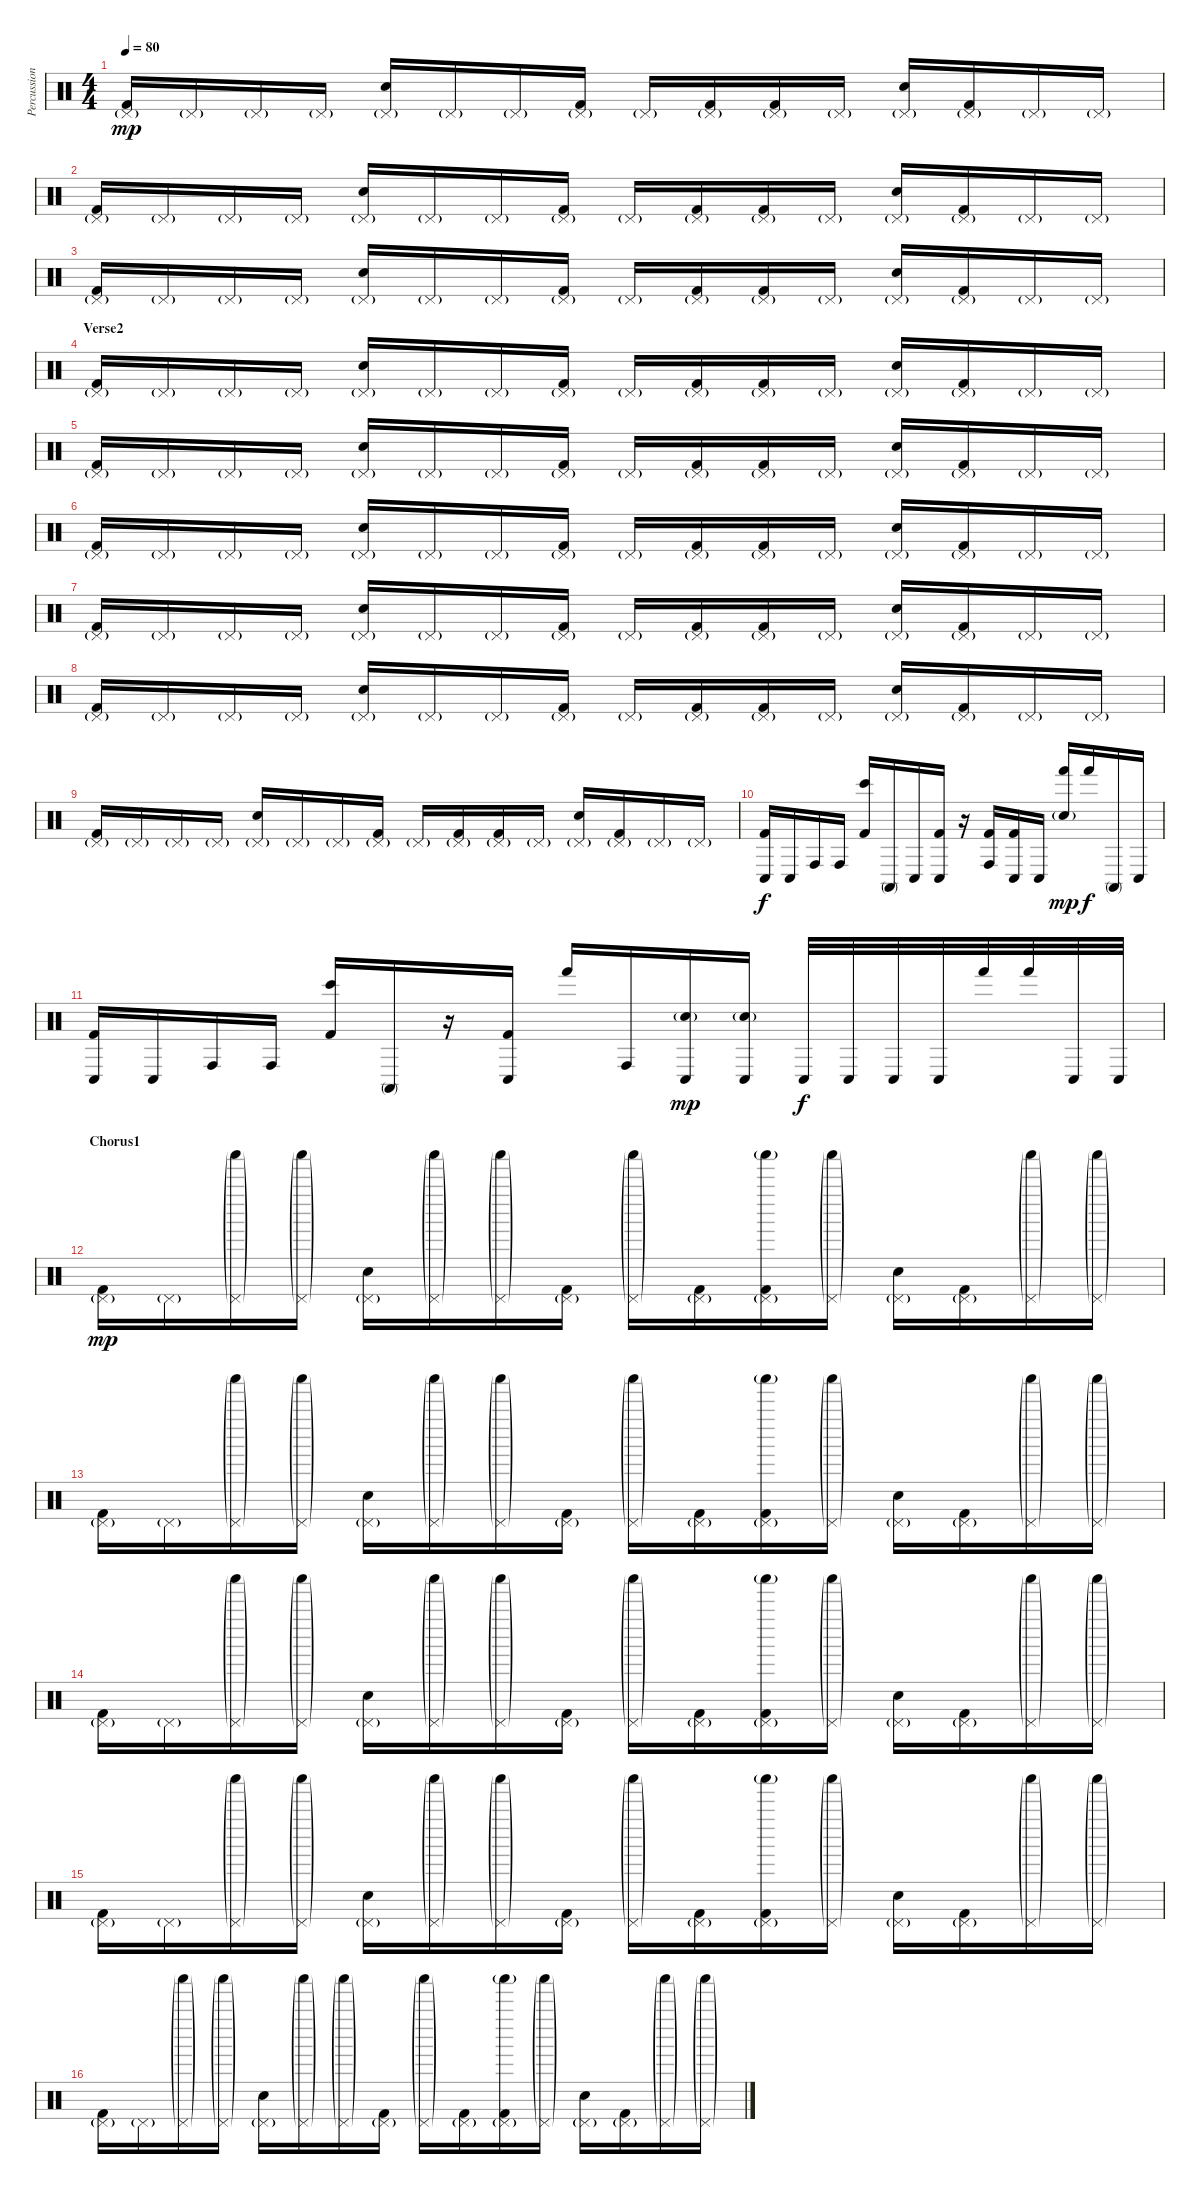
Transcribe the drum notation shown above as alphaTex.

\track ("Percussion" "Percussion") {instrument percussion}
\staff {score}
\articulation defaults
\ts (4 4)
\tempo 80
\clef neutral
\ks c
("Pedal Hi-Hat (hit)"{g} "Kick (hit) 2").16{dy mp} "Pedal Hi-Hat (hit)"{g}.16 "Pedal Hi-Hat (hit)"{g}.16 "Pedal Hi-Hat (hit)"{g}.16 ("Pedal Hi-Hat (hit)"{g} "Electric Snare (hit)").16 "Pedal Hi-Hat (hit)"{g}.16 "Pedal Hi-Hat (hit)"{g}.16 ("Pedal Hi-Hat (hit)"{g} "Kick (hit) 2").16 "Pedal Hi-Hat (hit)"{g}.16 ("Pedal Hi-Hat (hit)"{g} "Kick (hit) 2").16 ("Pedal Hi-Hat (hit)"{g} "Kick (hit) 2").16 "Pedal Hi-Hat (hit)"{g}.16 ("Pedal Hi-Hat (hit)"{g} "Electric Snare (hit)").16 ("Pedal Hi-Hat (hit)"{g} "Kick (hit) 2").16 "Pedal Hi-Hat (hit)"{g}.16 "Pedal Hi-Hat (hit)"{g}.16 |
("Pedal Hi-Hat (hit)"{g} "Kick (hit) 2").16 "Pedal Hi-Hat (hit)"{g}.16 "Pedal Hi-Hat (hit)"{g}.16 "Pedal Hi-Hat (hit)"{g}.16 ("Pedal Hi-Hat (hit)"{g} "Electric Snare (hit)").16 "Pedal Hi-Hat (hit)"{g}.16 "Pedal Hi-Hat (hit)"{g}.16 ("Pedal Hi-Hat (hit)"{g} "Kick (hit) 2").16 "Pedal Hi-Hat (hit)"{g}.16 ("Pedal Hi-Hat (hit)"{g} "Kick (hit) 2").16 ("Pedal Hi-Hat (hit)"{g} "Kick (hit) 2").16 "Pedal Hi-Hat (hit)"{g}.16 ("Pedal Hi-Hat (hit)"{g} "Electric Snare (hit)").16 ("Pedal Hi-Hat (hit)"{g} "Kick (hit) 2").16 "Pedal Hi-Hat (hit)"{g}.16 "Pedal Hi-Hat (hit)"{g}.16 |
("Pedal Hi-Hat (hit)"{g} "Kick (hit) 2").16 "Pedal Hi-Hat (hit)"{g}.16 "Pedal Hi-Hat (hit)"{g}.16 "Pedal Hi-Hat (hit)"{g}.16 ("Pedal Hi-Hat (hit)"{g} "Electric Snare (hit)").16 "Pedal Hi-Hat (hit)"{g}.16 "Pedal Hi-Hat (hit)"{g}.16 ("Pedal Hi-Hat (hit)"{g} "Kick (hit) 2").16 "Pedal Hi-Hat (hit)"{g}.16 ("Pedal Hi-Hat (hit)"{g} "Kick (hit) 2").16 ("Pedal Hi-Hat (hit)"{g} "Kick (hit) 2").16 "Pedal Hi-Hat (hit)"{g}.16 ("Pedal Hi-Hat (hit)"{g} "Electric Snare (hit)").16 ("Pedal Hi-Hat (hit)"{g} "Kick (hit) 2").16 "Pedal Hi-Hat (hit)"{g}.16 "Pedal Hi-Hat (hit)"{g}.16 |
\section ("" "Verse2")
("Pedal Hi-Hat (hit)"{g} "Kick (hit) 2").16 "Pedal Hi-Hat (hit)"{g}.16 "Pedal Hi-Hat (hit)"{g}.16 "Pedal Hi-Hat (hit)"{g}.16 ("Pedal Hi-Hat (hit)"{g} "Electric Snare (hit)").16 "Pedal Hi-Hat (hit)"{g}.16 "Pedal Hi-Hat (hit)"{g}.16 ("Pedal Hi-Hat (hit)"{g} "Kick (hit) 2").16 "Pedal Hi-Hat (hit)"{g}.16 ("Pedal Hi-Hat (hit)"{g} "Kick (hit) 2").16 ("Pedal Hi-Hat (hit)"{g} "Kick (hit) 2").16 "Pedal Hi-Hat (hit)"{g}.16 ("Pedal Hi-Hat (hit)"{g} "Electric Snare (hit)").16 ("Pedal Hi-Hat (hit)"{g} "Kick (hit) 2").16 "Pedal Hi-Hat (hit)"{g}.16 "Pedal Hi-Hat (hit)"{g}.16 |
("Pedal Hi-Hat (hit)"{g} "Kick (hit) 2").16 "Pedal Hi-Hat (hit)"{g}.16 "Pedal Hi-Hat (hit)"{g}.16 "Pedal Hi-Hat (hit)"{g}.16 ("Pedal Hi-Hat (hit)"{g} "Electric Snare (hit)").16 "Pedal Hi-Hat (hit)"{g}.16 "Pedal Hi-Hat (hit)"{g}.16 ("Pedal Hi-Hat (hit)"{g} "Kick (hit) 2").16 "Pedal Hi-Hat (hit)"{g}.16 ("Pedal Hi-Hat (hit)"{g} "Kick (hit) 2").16 ("Pedal Hi-Hat (hit)"{g} "Kick (hit) 2").16 "Pedal Hi-Hat (hit)"{g}.16 ("Pedal Hi-Hat (hit)"{g} "Electric Snare (hit)").16 ("Pedal Hi-Hat (hit)"{g} "Kick (hit) 2").16 "Pedal Hi-Hat (hit)"{g}.16 "Pedal Hi-Hat (hit)"{g}.16 |
("Pedal Hi-Hat (hit)"{g} "Kick (hit) 2").16 "Pedal Hi-Hat (hit)"{g}.16 "Pedal Hi-Hat (hit)"{g}.16 "Pedal Hi-Hat (hit)"{g}.16 ("Pedal Hi-Hat (hit)"{g} "Electric Snare (hit)").16 "Pedal Hi-Hat (hit)"{g}.16 "Pedal Hi-Hat (hit)"{g}.16 ("Pedal Hi-Hat (hit)"{g} "Kick (hit) 2").16 "Pedal Hi-Hat (hit)"{g}.16 ("Pedal Hi-Hat (hit)"{g} "Kick (hit) 2").16 ("Pedal Hi-Hat (hit)"{g} "Kick (hit) 2").16 "Pedal Hi-Hat (hit)"{g}.16 ("Pedal Hi-Hat (hit)"{g} "Electric Snare (hit)").16 ("Pedal Hi-Hat (hit)"{g} "Kick (hit) 2").16 "Pedal Hi-Hat (hit)"{g}.16 "Pedal Hi-Hat (hit)"{g}.16 |
("Pedal Hi-Hat (hit)"{g} "Kick (hit) 2").16 "Pedal Hi-Hat (hit)"{g}.16 "Pedal Hi-Hat (hit)"{g}.16 "Pedal Hi-Hat (hit)"{g}.16 ("Pedal Hi-Hat (hit)"{g} "Electric Snare (hit)").16 "Pedal Hi-Hat (hit)"{g}.16 "Pedal Hi-Hat (hit)"{g}.16 ("Pedal Hi-Hat (hit)"{g} "Kick (hit) 2").16 "Pedal Hi-Hat (hit)"{g}.16 ("Pedal Hi-Hat (hit)"{g} "Kick (hit) 2").16 ("Pedal Hi-Hat (hit)"{g} "Kick (hit) 2").16 "Pedal Hi-Hat (hit)"{g}.16 ("Pedal Hi-Hat (hit)"{g} "Electric Snare (hit)").16 ("Pedal Hi-Hat (hit)"{g} "Kick (hit) 2").16 "Pedal Hi-Hat (hit)"{g}.16 "Pedal Hi-Hat (hit)"{g}.16 |
("Pedal Hi-Hat (hit)"{g} "Kick (hit) 2").16 "Pedal Hi-Hat (hit)"{g}.16 "Pedal Hi-Hat (hit)"{g}.16 "Pedal Hi-Hat (hit)"{g}.16 ("Pedal Hi-Hat (hit)"{g} "Electric Snare (hit)").16 "Pedal Hi-Hat (hit)"{g}.16 "Pedal Hi-Hat (hit)"{g}.16 ("Pedal Hi-Hat (hit)"{g} "Kick (hit) 2").16 "Pedal Hi-Hat (hit)"{g}.16 ("Pedal Hi-Hat (hit)"{g} "Kick (hit) 2").16 ("Pedal Hi-Hat (hit)"{g} "Kick (hit) 2").16 "Pedal Hi-Hat (hit)"{g}.16 ("Pedal Hi-Hat (hit)"{g} "Electric Snare (hit)").16 ("Pedal Hi-Hat (hit)"{g} "Kick (hit) 2").16 "Pedal Hi-Hat (hit)"{g}.16 "Pedal Hi-Hat (hit)"{g}.16 |
("Pedal Hi-Hat (hit)"{g} "Kick (hit) 2").16 "Pedal Hi-Hat (hit)"{g}.16 "Pedal Hi-Hat (hit)"{g}.16 "Pedal Hi-Hat (hit)"{g}.16 ("Pedal Hi-Hat (hit)"{g} "Electric Snare (hit)").16 "Pedal Hi-Hat (hit)"{g}.16 "Pedal Hi-Hat (hit)"{g}.16 ("Pedal Hi-Hat (hit)"{g} "Kick (hit) 2").16 "Pedal Hi-Hat (hit)"{g}.16 ("Pedal Hi-Hat (hit)"{g} "Kick (hit) 2").16 ("Pedal Hi-Hat (hit)"{g} "Kick (hit) 2").16 "Pedal Hi-Hat (hit)"{g}.16 ("Pedal Hi-Hat (hit)"{g} "Electric Snare (hit)").16 ("Pedal Hi-Hat (hit)"{g} "Kick (hit) 2").16 "Pedal Hi-Hat (hit)"{g}.16 "Pedal Hi-Hat (hit)"{g}.16 |
("Conga low (hit)" "Kick (hit) 2").16{dy f} "Conga low (hit)".16 "Conga high (hit)".16 "Conga high (hit)".16 ("Bongo High (hit)" "Kick (hit) 2").16 "Conga high (mute)".16 "Conga low (hit)".16 ("Conga low (hit)" "Kick (hit) 2").16 r.16 ("Conga high (hit)" "Kick (hit) 2").16 ("Conga low (hit)" "Kick (hit) 2").16 "Conga low (hit)".16 ("Hand (hit)" "Electric Snare (hit)"{g}).16{dy mp} "Hand (hit)".16{dy f} "Conga high (mute)".16 "Conga low (hit)".16 |
("Conga low (hit)" "Kick (hit) 2").16 "Conga low (hit)".16 "Conga high (hit)".16 "Conga high (hit)".16 ("Bongo High (hit)" "Kick (hit) 2").16 "Conga high (mute)".16 r.16 ("Conga low (hit)" "Kick (hit) 2").16 "Hand (hit)".16 "Conga high (hit)".16 ("Conga low (hit)" "Electric Snare (hit)"{g}).16{dy mp} ("Conga low (hit)" "Electric Snare (hit)"{g}).16 "Conga low (hit)".32{dy f} "Conga low (hit)".32 "Conga low (hit)".32 "Conga low (hit)".32 "Hand (hit)".32 "Hand (hit)".32 "Conga low (hit)".32 "Conga low (hit)".32 |
\section ("" "Chorus1")
("Pedal Hi-Hat (hit)"{g} "Kick (hit) 2").16{dy mp} "Pedal Hi-Hat (hit)"{g}.16 ("Pedal Hi-Hat (hit)"{g} "Shaker (hit)"{g}).16 ("Pedal Hi-Hat (hit)"{g} "Shaker (hit)"{g}).16 ("Pedal Hi-Hat (hit)"{g} "Electric Snare (hit)").16 ("Pedal Hi-Hat (hit)"{g} "Shaker (hit)"{g}).16 ("Pedal Hi-Hat (hit)"{g} "Shaker (hit)"{g}).16 ("Pedal Hi-Hat (hit)"{g} "Kick (hit) 2").16 ("Pedal Hi-Hat (hit)"{g} "Shaker (hit)"{g}).16 ("Pedal Hi-Hat (hit)"{g} "Kick (hit) 2").16 ("Pedal Hi-Hat (hit)"{g} "Shaker (hit)"{g} "Kick (hit) 2").16 ("Pedal Hi-Hat (hit)"{g} "Shaker (hit)"{g}).16 ("Pedal Hi-Hat (hit)"{g} "Electric Snare (hit)").16 ("Pedal Hi-Hat (hit)"{g} "Kick (hit) 2").16 ("Pedal Hi-Hat (hit)"{g} "Shaker (hit)"{g}).16 ("Pedal Hi-Hat (hit)"{g} "Shaker (hit)"{g}).16 |
("Pedal Hi-Hat (hit)"{g} "Kick (hit) 2").16 "Pedal Hi-Hat (hit)"{g}.16 ("Pedal Hi-Hat (hit)"{g} "Shaker (hit)"{g}).16 ("Pedal Hi-Hat (hit)"{g} "Shaker (hit)"{g}).16 ("Pedal Hi-Hat (hit)"{g} "Electric Snare (hit)").16 ("Pedal Hi-Hat (hit)"{g} "Shaker (hit)"{g}).16 ("Pedal Hi-Hat (hit)"{g} "Shaker (hit)"{g}).16 ("Pedal Hi-Hat (hit)"{g} "Kick (hit) 2").16 ("Pedal Hi-Hat (hit)"{g} "Shaker (hit)"{g}).16 ("Pedal Hi-Hat (hit)"{g} "Kick (hit) 2").16 ("Pedal Hi-Hat (hit)"{g} "Shaker (hit)"{g} "Kick (hit) 2").16 ("Pedal Hi-Hat (hit)"{g} "Shaker (hit)"{g}).16 ("Pedal Hi-Hat (hit)"{g} "Electric Snare (hit)").16 ("Pedal Hi-Hat (hit)"{g} "Kick (hit) 2").16 ("Pedal Hi-Hat (hit)"{g} "Shaker (hit)"{g}).16 ("Pedal Hi-Hat (hit)"{g} "Shaker (hit)"{g}).16 |
("Pedal Hi-Hat (hit)"{g} "Kick (hit) 2").16 "Pedal Hi-Hat (hit)"{g}.16 ("Pedal Hi-Hat (hit)"{g} "Shaker (hit)"{g}).16 ("Pedal Hi-Hat (hit)"{g} "Shaker (hit)"{g}).16 ("Pedal Hi-Hat (hit)"{g} "Electric Snare (hit)").16 ("Pedal Hi-Hat (hit)"{g} "Shaker (hit)"{g}).16 ("Pedal Hi-Hat (hit)"{g} "Shaker (hit)"{g}).16 ("Pedal Hi-Hat (hit)"{g} "Kick (hit) 2").16 ("Pedal Hi-Hat (hit)"{g} "Shaker (hit)"{g}).16 ("Pedal Hi-Hat (hit)"{g} "Kick (hit) 2").16 ("Pedal Hi-Hat (hit)"{g} "Shaker (hit)"{g} "Kick (hit) 2").16 ("Pedal Hi-Hat (hit)"{g} "Shaker (hit)"{g}).16 ("Pedal Hi-Hat (hit)"{g} "Electric Snare (hit)").16 ("Pedal Hi-Hat (hit)"{g} "Kick (hit) 2").16 ("Pedal Hi-Hat (hit)"{g} "Shaker (hit)"{g}).16 ("Pedal Hi-Hat (hit)"{g} "Shaker (hit)"{g}).16 |
("Pedal Hi-Hat (hit)"{g} "Kick (hit) 2").16 "Pedal Hi-Hat (hit)"{g}.16 ("Pedal Hi-Hat (hit)"{g} "Shaker (hit)"{g}).16 ("Pedal Hi-Hat (hit)"{g} "Shaker (hit)"{g}).16 ("Pedal Hi-Hat (hit)"{g} "Electric Snare (hit)").16 ("Pedal Hi-Hat (hit)"{g} "Shaker (hit)"{g}).16 ("Pedal Hi-Hat (hit)"{g} "Shaker (hit)"{g}).16 ("Pedal Hi-Hat (hit)"{g} "Kick (hit) 2").16 ("Pedal Hi-Hat (hit)"{g} "Shaker (hit)"{g}).16 ("Pedal Hi-Hat (hit)"{g} "Kick (hit) 2").16 ("Pedal Hi-Hat (hit)"{g} "Shaker (hit)"{g} "Kick (hit) 2").16 ("Pedal Hi-Hat (hit)"{g} "Shaker (hit)"{g}).16 ("Pedal Hi-Hat (hit)"{g} "Electric Snare (hit)").16 ("Pedal Hi-Hat (hit)"{g} "Kick (hit) 2").16 ("Pedal Hi-Hat (hit)"{g} "Shaker (hit)"{g}).16 ("Pedal Hi-Hat (hit)"{g} "Shaker (hit)"{g}).16 |
("Pedal Hi-Hat (hit)"{g} "Kick (hit) 2").16 "Pedal Hi-Hat (hit)"{g}.16 ("Pedal Hi-Hat (hit)"{g} "Shaker (hit)"{g}).16 ("Pedal Hi-Hat (hit)"{g} "Shaker (hit)"{g}).16 ("Pedal Hi-Hat (hit)"{g} "Electric Snare (hit)").16 ("Pedal Hi-Hat (hit)"{g} "Shaker (hit)"{g}).16 ("Pedal Hi-Hat (hit)"{g} "Shaker (hit)"{g}).16 ("Pedal Hi-Hat (hit)"{g} "Kick (hit) 2").16 ("Pedal Hi-Hat (hit)"{g} "Shaker (hit)"{g}).16 ("Pedal Hi-Hat (hit)"{g} "Kick (hit) 2").16 ("Pedal Hi-Hat (hit)"{g} "Shaker (hit)"{g} "Kick (hit) 2").16 ("Pedal Hi-Hat (hit)"{g} "Shaker (hit)"{g}).16 ("Pedal Hi-Hat (hit)"{g} "Electric Snare (hit)").16 ("Pedal Hi-Hat (hit)"{g} "Kick (hit) 2").16 ("Pedal Hi-Hat (hit)"{g} "Shaker (hit)"{g}).16 ("Pedal Hi-Hat (hit)"{g} "Shaker (hit)"{g}).16
